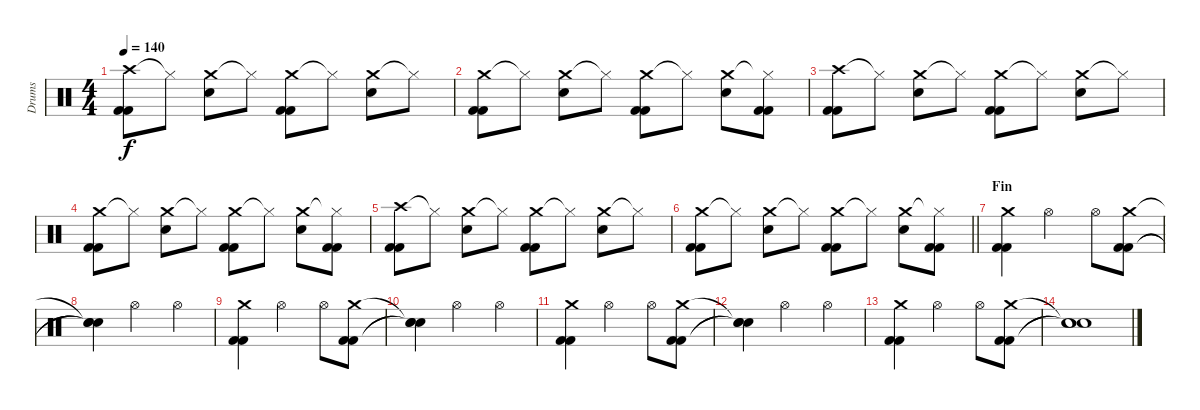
\track ("Drums" "Drums") {instrument percussion}
\staff {score}
\articulation defaults
\ts (4 4)
\tempo 140
\clef neutral
\ks c
("Crash high (hit)" "Kick (hit) 2" "Kick (hit) 2").8{dy f} "Hi-Hat (closed)"{t}.8 ("Crash medium (hit)" "Electric Snare (hit)").8 "Hi-Hat (closed)"{t}.8 ("Crash medium (hit)" "Kick (hit) 2" "Kick (hit) 2").8 "Hi-Hat (closed)"{t}.8 ("Crash medium (hit)" "Electric Snare (hit)").8 "Hi-Hat (closed)"{t}.8 |
("Crash medium (hit)" "Kick (hit) 2" "Kick (hit) 2").8 "Hi-Hat (closed)"{t}.8 ("Crash medium (hit)" "Electric Snare (hit)").8 "Hi-Hat (closed)"{t}.8 ("Crash medium (hit)" "Kick (hit) 2" "Kick (hit) 2").8 "Hi-Hat (closed)"{t}.8 ("Crash medium (hit)" "Electric Snare (hit)").8 ("Hi-Hat (closed)"{t} "Kick (hit) 2" "Kick (hit) 2").8 |
("Crash high (hit)" "Kick (hit) 2" "Kick (hit) 2").8 "Hi-Hat (closed)"{t}.8 ("Crash medium (hit)" "Electric Snare (hit)").8 "Hi-Hat (closed)"{t}.8 ("Crash medium (hit)" "Kick (hit) 2" "Kick (hit) 2").8 "Hi-Hat (closed)"{t}.8 ("Crash medium (hit)" "Electric Snare (hit)").8 "Hi-Hat (closed)"{t}.8 |
("Crash medium (hit)" "Kick (hit) 2" "Kick (hit) 2").8 "Hi-Hat (closed)"{t}.8 ("Crash medium (hit)" "Electric Snare (hit)").8 "Hi-Hat (closed)"{t}.8 ("Crash medium (hit)" "Kick (hit) 2" "Kick (hit) 2").8 "Hi-Hat (closed)"{t}.8 ("Crash medium (hit)" "Electric Snare (hit)").8 ("Hi-Hat (closed)"{t} "Kick (hit) 2" "Kick (hit) 2").8 |
("Crash high (hit)" "Kick (hit) 2" "Kick (hit) 2").8 "Hi-Hat (closed)"{t}.8 ("Crash medium (hit)" "Electric Snare (hit)").8 "Hi-Hat (closed)"{t}.8 ("Crash medium (hit)" "Kick (hit) 2" "Kick (hit) 2").8 "Hi-Hat (closed)"{t}.8 ("Crash medium (hit)" "Electric Snare (hit)").8 "Hi-Hat (closed)"{t}.8 |
\barLineRight lightlight
("Crash medium (hit)" "Kick (hit) 2" "Kick (hit) 2").8 "Hi-Hat (closed)"{t}.8 ("Crash medium (hit)" "Electric Snare (hit)").8 "Hi-Hat (closed)"{t}.8 ("Crash medium (hit)" "Kick (hit) 2" "Kick (hit) 2").8 "Hi-Hat (closed)"{t}.8 ("Crash medium (hit)" "Electric Snare (hit)").8 ("Hi-Hat (closed)"{t} "Kick (hit) 2" "Kick (hit) 2").8 |
\section ("" "Fin")
("Crash medium (hit)" "Kick (hit) 2" "Kick (hit) 2").4 "Hi-Hat (open)".2 "Hi-Hat (open)".8 ("Crash medium (hit)" "Kick (hit) 2" "Kick (hit) 2").8 |
("Snare (hit)"{t} "Snare (hit)"{t} "Snare (hit)"{t}).4 "Hi-Hat (open)".2 "Hi-Hat (open)".4 |
("Crash medium (hit)" "Kick (hit) 2" "Kick (hit) 2").4 "Hi-Hat (open)".2 "Hi-Hat (open)".8 ("Crash medium (hit)" "Kick (hit) 2" "Kick (hit) 2").8 |
("Snare (hit)"{t} "Snare (hit)"{t} "Snare (hit)"{t}).4 "Hi-Hat (open)".2 "Hi-Hat (open)".4 |
("Crash medium (hit)" "Kick (hit) 2" "Kick (hit) 2").4 "Hi-Hat (open)".2 "Hi-Hat (open)".8 ("Crash medium (hit)" "Kick (hit) 2" "Kick (hit) 2").8 |
("Snare (hit)"{t} "Snare (hit)"{t} "Snare (hit)"{t}).4 "Hi-Hat (open)".2 "Hi-Hat (open)".4 |
("Crash medium (hit)" "Kick (hit) 2" "Kick (hit) 2").4 "Hi-Hat (open)".2 "Hi-Hat (open)".8 ("Crash medium (hit)" "Kick (hit) 2" "Kick (hit) 2").8 |
("Snare (hit)"{t} "Snare (hit)"{t} "Snare (hit)"{t}).1
